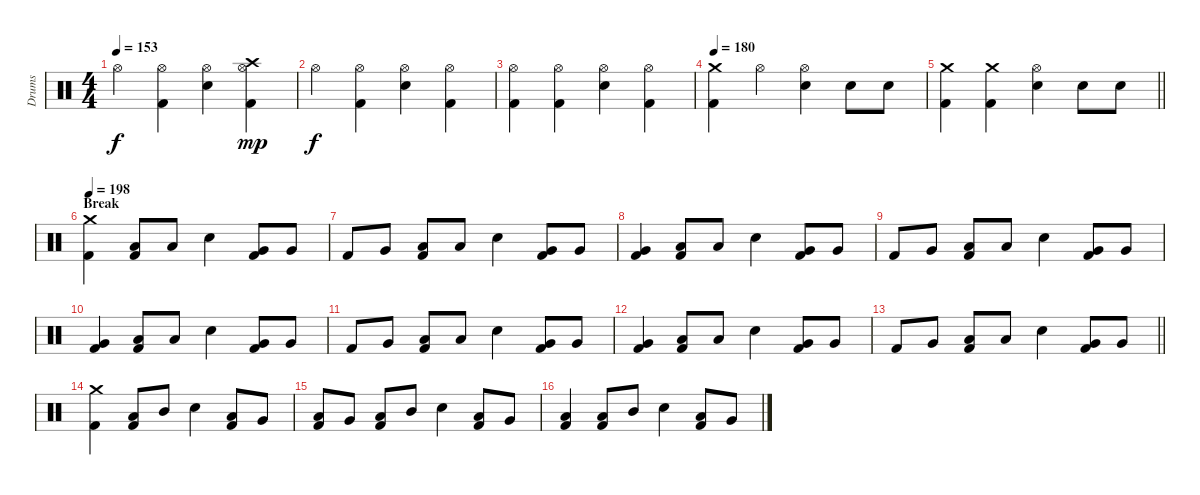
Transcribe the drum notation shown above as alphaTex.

\track ("Drums" "Drums") {instrument percussion}
\staff {score}
\articulation defaults
\ts (4 4)
\tempo 153
\clef neutral
\ks c "Hi-Hat (open)".4{dy f}
("Hi-Hat (open)" "Kick (hit) 2").4 ("Hi-Hat (open)" "Snare (hit) 2").4 ("Crash high (hit)" "Hi-Hat (open)" "Kick (hit) 2").4{dy mp} |
"Hi-Hat (open)".4{dy f} ("Hi-Hat (open)" "Kick (hit) 2").4 ("Hi-Hat (open)" "Snare (hit) 2").4 ("Hi-Hat (open)" "Kick (hit) 2").4 |
("Hi-Hat (open)" "Kick (hit) 2").4 ("Hi-Hat (open)" "Kick (hit) 2").4 ("Hi-Hat (open)" "Snare (hit) 2").4 ("Hi-Hat (open)" "Kick (hit) 2").4 |
\tempo 180
("Crash medium (hit)" "Kick (hit) 2").4 "Hi-Hat (open)".4 ("Hi-Hat (open)" "Snare (hit) 2").4 "Snare (hit) 2".8 "Snare (hit) 2".8 |
\barLineRight lightlight
("Crash medium (hit)" "Kick (hit) 2").4 ("Crash medium (hit)" "Kick (hit) 2").4 ("Hi-Hat (open)" "Snare (hit) 2").4 "Snare (hit) 2".8 "Snare (hit) 2".8 |
\section ("" "Break")
\tempo 198
("Crash medium (hit)" "Kick (hit) 2").4 ("Low Tom (hit)" "Kick (hit) 2").8 "Low Tom (hit)".8 "Snare (hit) 2".4 ("Very Low Tom (hit)" "Kick (hit) 2").8 "Very Low Tom (hit)".8 |
"Kick (hit) 2".8 "Very Low Tom (hit)".8 ("Low Tom (hit)" "Kick (hit) 2").8 "Low Tom (hit)".8 "Snare (hit) 2".4 ("Very Low Tom (hit)" "Kick (hit) 2").8 "Very Low Tom (hit)".8 |
("Very Low Tom (hit)" "Kick (hit) 2").4 ("Low Tom (hit)" "Kick (hit) 2").8 "Low Tom (hit)".8 "Snare (hit) 2".4 ("Very Low Tom (hit)" "Kick (hit) 2").8 "Very Low Tom (hit)".8 |
"Kick (hit) 2".8 "Very Low Tom (hit)".8 ("Low Tom (hit)" "Kick (hit) 2").8 "Low Tom (hit)".8 "Snare (hit) 2".4 ("Very Low Tom (hit)" "Kick (hit) 2").8 "Very Low Tom (hit)".8 |
("Very Low Tom (hit)" "Kick (hit) 2").4 ("Low Tom (hit)" "Kick (hit) 2").8 "Low Tom (hit)".8 "Snare (hit) 2".4 ("Very Low Tom (hit)" "Kick (hit) 2").8 "Very Low Tom (hit)".8 |
"Kick (hit) 2".8 "Very Low Tom (hit)".8 ("Low Tom (hit)" "Kick (hit) 2").8 "Low Tom (hit)".8 "Snare (hit) 2".4 ("Very Low Tom (hit)" "Kick (hit) 2").8 "Very Low Tom (hit)".8 |
("Very Low Tom (hit)" "Kick (hit) 2").4 ("Low Tom (hit)" "Kick (hit) 2").8 "Low Tom (hit)".8 "Snare (hit) 2".4 ("Very Low Tom (hit)" "Kick (hit) 2").8 "Very Low Tom (hit)".8 |
\barLineRight lightlight "Kick (hit) 2".8 "Very Low Tom (hit)".8
("Low Tom (hit)" "Kick (hit) 2").8 "Low Tom (hit)".8 "Snare (hit) 2".4 ("Very Low Tom (hit)" "Kick (hit) 2").8 "Very Low Tom (hit)".8 |
\section ("" "")
("Crash medium (hit)" "Kick (hit) 2").4 ("Low Tom (hit)" "Kick (hit) 2").8 "Mid Tom (hit)".8 "Snare (hit) 2".4 ("Low Floor Tom (hit)" "Kick (hit) 2").8 "Very Low Tom (hit)".8 |
("Low Floor Tom (hit)" "Kick (hit) 2").8 "Very Low Tom (hit)".8 ("Low Tom (hit)" "Kick (hit) 2").8 "Mid Tom (hit)".8 "Snare (hit) 2".4 ("Low Floor Tom (hit)" "Kick (hit) 2").8 "Very Low Tom (hit)".8 |
("Low Floor Tom (hit)" "Kick (hit) 2").4 ("Low Tom (hit)" "Kick (hit) 2").8 "Mid Tom (hit)".8 "Snare (hit) 2".4 ("Low Floor Tom (hit)" "Kick (hit) 2").8 "Very Low Tom (hit)".8
